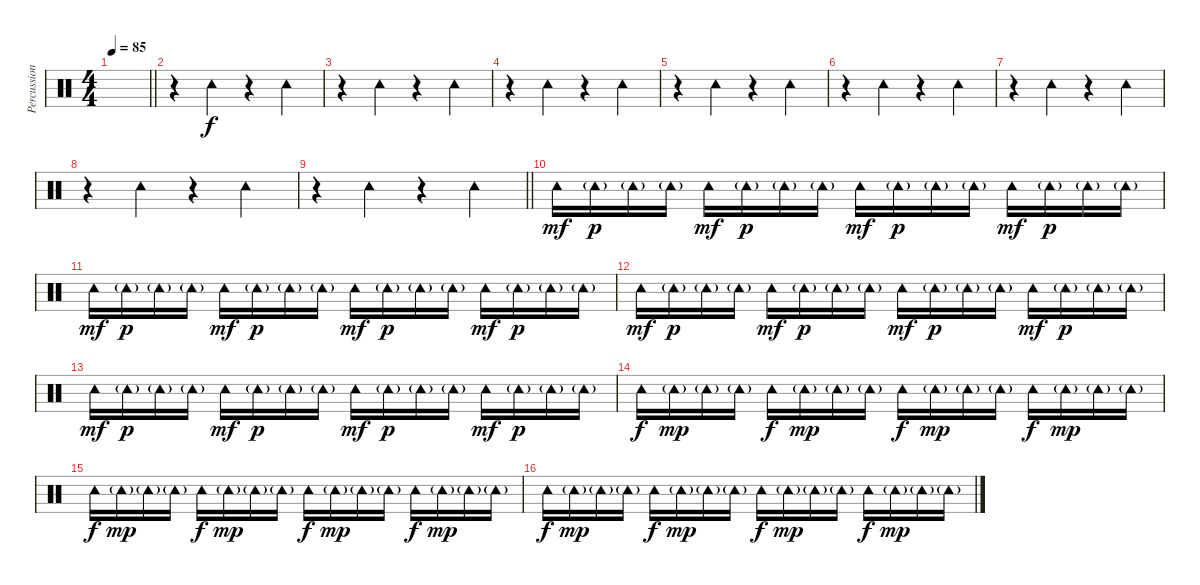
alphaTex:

\track ("Percussions" "Percussion") {instrument percussion}
\staff {score}
\articulation defaults
\ts (4 4)
\tempo 85
\clef neutral
\barLineRight lightlight
\ks c
|
r.4 "Tambourine (hit)".4{dy f} r.4 "Tambourine (hit)".4 |
r.4 "Tambourine (hit)".4 r.4 "Tambourine (hit)".4 |
r.4 "Tambourine (hit)".4 r.4 "Tambourine (hit)".4 |
r.4 "Tambourine (hit)".4 r.4 "Tambourine (hit)".4 |
r.4 "Tambourine (hit)".4 r.4 "Tambourine (hit)".4 |
r.4 "Tambourine (hit)".4 r.4 "Tambourine (hit)".4 |
r.4 "Tambourine (hit)".4 r.4 "Tambourine (hit)".4 |
\barLineRight lightlight
r.4 "Tambourine (hit)".4 r.4 "Tambourine (hit)".4 |
"Tambourine (hit)".16{dy mf} "Tambourine (hit)"{g}.16{dy p} "Tambourine (hit)"{g}.16 "Tambourine (hit)"{g}.16 "Tambourine (hit)".16{dy mf} "Tambourine (hit)"{g}.16{dy p} "Tambourine (hit)"{g}.16 "Tambourine (hit)"{g}.16 "Tambourine (hit)".16{dy mf} "Tambourine (hit)"{g}.16{dy p} "Tambourine (hit)"{g}.16 "Tambourine (hit)"{g}.16 "Tambourine (hit)".16{dy mf} "Tambourine (hit)"{g}.16{dy p} "Tambourine (hit)"{g}.16 "Tambourine (hit)"{g}.16 |
"Tambourine (hit)".16{dy mf} "Tambourine (hit)"{g}.16{dy p} "Tambourine (hit)"{g}.16 "Tambourine (hit)"{g}.16 "Tambourine (hit)".16{dy mf} "Tambourine (hit)"{g}.16{dy p} "Tambourine (hit)"{g}.16 "Tambourine (hit)"{g}.16 "Tambourine (hit)".16{dy mf} "Tambourine (hit)"{g}.16{dy p} "Tambourine (hit)"{g}.16 "Tambourine (hit)"{g}.16 "Tambourine (hit)".16{dy mf} "Tambourine (hit)"{g}.16{dy p} "Tambourine (hit)"{g}.16 "Tambourine (hit)"{g}.16 |
"Tambourine (hit)".16{dy mf} "Tambourine (hit)"{g}.16{dy p} "Tambourine (hit)"{g}.16 "Tambourine (hit)"{g}.16 "Tambourine (hit)".16{dy mf} "Tambourine (hit)"{g}.16{dy p} "Tambourine (hit)"{g}.16 "Tambourine (hit)"{g}.16 "Tambourine (hit)".16{dy mf} "Tambourine (hit)"{g}.16{dy p} "Tambourine (hit)"{g}.16 "Tambourine (hit)"{g}.16 "Tambourine (hit)".16{dy mf} "Tambourine (hit)"{g}.16{dy p} "Tambourine (hit)"{g}.16 "Tambourine (hit)"{g}.16 |
"Tambourine (hit)".16{dy mf} "Tambourine (hit)"{g}.16{dy p} "Tambourine (hit)"{g}.16 "Tambourine (hit)"{g}.16 "Tambourine (hit)".16{dy mf} "Tambourine (hit)"{g}.16{dy p} "Tambourine (hit)"{g}.16 "Tambourine (hit)"{g}.16 "Tambourine (hit)".16{dy mf} "Tambourine (hit)"{g}.16{dy p} "Tambourine (hit)"{g}.16 "Tambourine (hit)"{g}.16 "Tambourine (hit)".16{dy mf} "Tambourine (hit)"{g}.16{dy p} "Tambourine (hit)"{g}.16 "Tambourine (hit)"{g}.16 |
"Tambourine (hit)".16{dy f} "Tambourine (hit)"{g}.16{dy mp} "Tambourine (hit)"{g}.16 "Tambourine (hit)"{g}.16 "Tambourine (hit)".16{dy f} "Tambourine (hit)"{g}.16{dy mp} "Tambourine (hit)"{g}.16 "Tambourine (hit)"{g}.16 "Tambourine (hit)".16{dy f} "Tambourine (hit)"{g}.16{dy mp} "Tambourine (hit)"{g}.16 "Tambourine (hit)"{g}.16 "Tambourine (hit)".16{dy f} "Tambourine (hit)"{g}.16{dy mp} "Tambourine (hit)"{g}.16 "Tambourine (hit)"{g}.16 |
"Tambourine (hit)".16{dy f} "Tambourine (hit)"{g}.16{dy mp} "Tambourine (hit)"{g}.16 "Tambourine (hit)"{g}.16 "Tambourine (hit)".16{dy f} "Tambourine (hit)"{g}.16{dy mp} "Tambourine (hit)"{g}.16 "Tambourine (hit)"{g}.16 "Tambourine (hit)".16{dy f} "Tambourine (hit)"{g}.16{dy mp} "Tambourine (hit)"{g}.16 "Tambourine (hit)"{g}.16 "Tambourine (hit)".16{dy f} "Tambourine (hit)"{g}.16{dy mp} "Tambourine (hit)"{g}.16 "Tambourine (hit)"{g}.16 |
"Tambourine (hit)".16{dy f} "Tambourine (hit)"{g}.16{dy mp} "Tambourine (hit)"{g}.16 "Tambourine (hit)"{g}.16 "Tambourine (hit)".16{dy f} "Tambourine (hit)"{g}.16{dy mp} "Tambourine (hit)"{g}.16 "Tambourine (hit)"{g}.16 "Tambourine (hit)".16{dy f} "Tambourine (hit)"{g}.16{dy mp} "Tambourine (hit)"{g}.16 "Tambourine (hit)"{g}.16 "Tambourine (hit)".16{dy f} "Tambourine (hit)"{g}.16{dy mp} "Tambourine (hit)"{g}.16 "Tambourine (hit)"{g}.16
